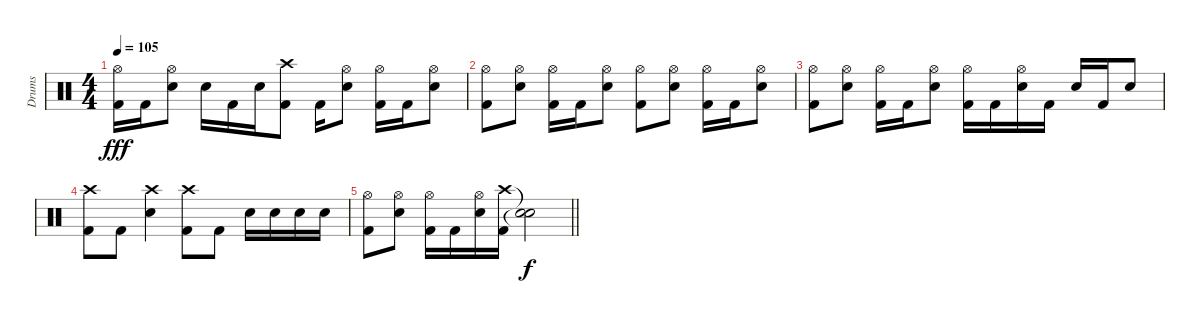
\track ("Drums" "Drums") {instrument percussion}
\staff {score}
\articulation defaults
\ts (4 4)
\tempo 105
\clef neutral
\ks c
("Hi-Hat (open)" "Kick (hit) 2").16{dy fff} "Kick (hit) 2".16 ("Hi-Hat (open)" "Electric Snare (hit)").8 "Electric Snare (hit)".16 "Kick (hit) 2".16 "Electric Snare (hit)".16 ("Crash high (hit)" "Kick (hit) 2").8 "Kick (hit) 2".16 ("Hi-Hat (open)" "Electric Snare (hit)").8 ("Hi-Hat (open)" "Kick (hit) 2").16 "Kick (hit) 2".16 ("Hi-Hat (open)" "Electric Snare (hit)").8 |
("Hi-Hat (open)" "Kick (hit) 2").8 ("Hi-Hat (open)" "Electric Snare (hit)").8 ("Hi-Hat (open)" "Kick (hit) 2").16 "Kick (hit) 2".16 ("Hi-Hat (open)" "Electric Snare (hit)").8 ("Hi-Hat (open)" "Kick (hit) 2").8 ("Hi-Hat (open)" "Electric Snare (hit)").8 ("Hi-Hat (open)" "Kick (hit) 2").16 "Kick (hit) 2".16 ("Hi-Hat (open)" "Electric Snare (hit)").8 |
("Hi-Hat (open)" "Kick (hit) 2").8 ("Hi-Hat (open)" "Electric Snare (hit)").8 ("Hi-Hat (open)" "Kick (hit) 2").16 "Kick (hit) 2".16 ("Hi-Hat (open)" "Electric Snare (hit)").8 ("Hi-Hat (open)" "Kick (hit) 2").16 "Kick (hit) 2".16 ("Hi-Hat (open)" "Electric Snare (hit)").16 "Kick (hit) 2".16 "Electric Snare (hit)".16 "Kick (hit) 2".16 "Electric Snare (hit)".8 |
("Crash high (hit)" "Kick (hit) 2").8 "Kick (hit) 2".8 ("Crash high (hit)" "Electric Snare (hit)").4 ("Crash high (hit)" "Kick (hit) 2").8 "Kick (hit) 2".8 "Electric Snare (hit)".16 "Electric Snare (hit)".16 "Electric Snare (hit)".16 "Electric Snare (hit)".16 |
\barLineRight lightlight
("Hi-Hat (open)" "Kick (hit) 2").8 ("Hi-Hat (open)" "Electric Snare (hit)").8 ("Hi-Hat (open)" "Kick (hit) 2").16 "Kick (hit) 2".16 ("Hi-Hat (open)" "Electric Snare (hit)").16 ("Crash high (hit)" "Kick (hit) 2").16 ("Snare (hit)"{t} "Snare (hit)"{t}).2{dy f}
